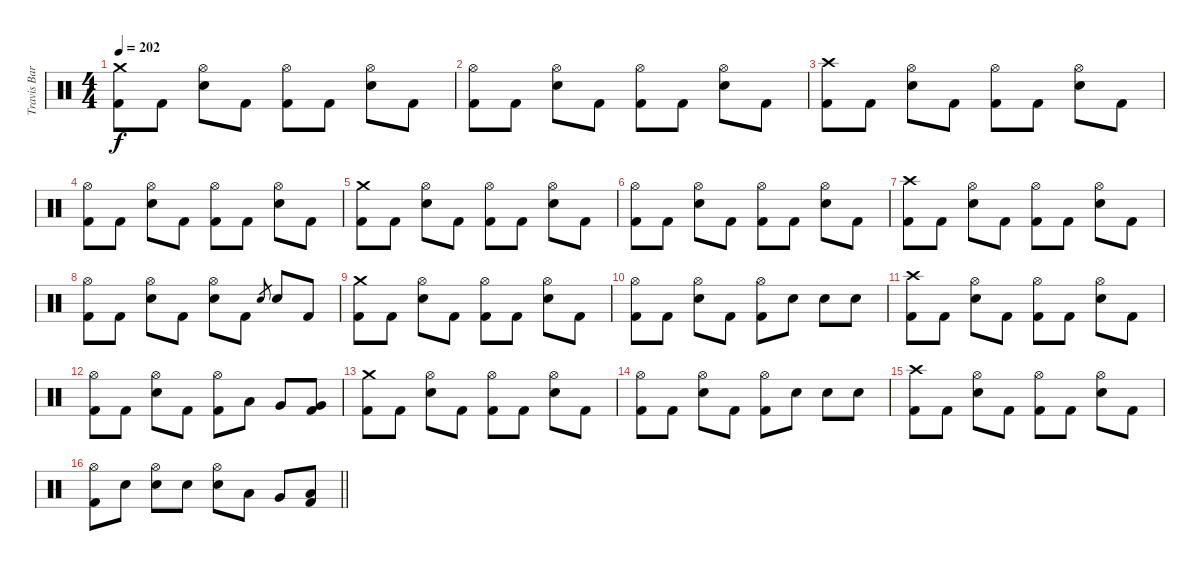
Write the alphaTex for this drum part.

\track ("Travis Barker - Drums" "Travis Bar") {instrument percussion}
\staff {score}
\articulation defaults
\ts (4 4)
\tempo 202
\clef neutral
\ks c
("Crash medium (hit)" "Kick (hit) 2").8{dy f} "Kick (hit) 2".8 ("Hi-Hat (open)" "Electric Snare (hit)").8 "Kick (hit) 2".8 ("Hi-Hat (open)" "Kick (hit) 2").8 "Kick (hit) 2".8 ("Hi-Hat (open)" "Electric Snare (hit)").8 "Kick (hit) 2".8 |
("Hi-Hat (open)" "Kick (hit) 2").8 "Kick (hit) 2".8 ("Hi-Hat (open)" "Electric Snare (hit)").8 "Kick (hit) 2".8 ("Hi-Hat (open)" "Kick (hit) 2").8 "Kick (hit) 2".8 ("Hi-Hat (open)" "Electric Snare (hit)").8 "Kick (hit) 2".8 |
("Crash high (hit)" "Kick (hit) 2").8 "Kick (hit) 2".8 ("Hi-Hat (open)" "Electric Snare (hit)").8 "Kick (hit) 2".8 ("Hi-Hat (open)" "Kick (hit) 2").8 "Kick (hit) 2".8 ("Hi-Hat (open)" "Electric Snare (hit)").8 "Kick (hit) 2".8 |
("Hi-Hat (open)" "Kick (hit) 2").8 "Kick (hit) 2".8 ("Hi-Hat (open)" "Electric Snare (hit)").8 "Kick (hit) 2".8 ("Hi-Hat (open)" "Kick (hit) 2").8 "Kick (hit) 2".8 ("Hi-Hat (open)" "Electric Snare (hit)").8 "Kick (hit) 2".8 |
("Crash medium (hit)" "Kick (hit) 2").8 "Kick (hit) 2".8 ("Hi-Hat (open)" "Electric Snare (hit)").8 "Kick (hit) 2".8 ("Hi-Hat (open)" "Kick (hit) 2").8 "Kick (hit) 2".8 ("Hi-Hat (open)" "Electric Snare (hit)").8 "Kick (hit) 2".8 |
("Hi-Hat (open)" "Kick (hit) 2").8 "Kick (hit) 2".8 ("Hi-Hat (open)" "Electric Snare (hit)").8 "Kick (hit) 2".8 ("Hi-Hat (open)" "Kick (hit) 2").8 "Kick (hit) 2".8 ("Hi-Hat (open)" "Electric Snare (hit)").8 "Kick (hit) 2".8 |
("Crash high (hit)" "Kick (hit) 2").8 "Kick (hit) 2".8 ("Hi-Hat (open)" "Electric Snare (hit)").8 "Kick (hit) 2".8 ("Hi-Hat (open)" "Kick (hit) 2").8 "Kick (hit) 2".8 ("Hi-Hat (open)" "Electric Snare (hit)").8 "Kick (hit) 2".8 |
("Hi-Hat (open)" "Kick (hit) 2").8 "Kick (hit) 2".8 ("Hi-Hat (open)" "Electric Snare (hit)").8 "Kick (hit) 2".8 ("Hi-Hat (open)" "Electric Snare (hit)").8 "Kick (hit) 2".8 "Electric Snare (hit)".8{gr} "Electric Snare (hit)".8 "Kick (hit) 2".8 |
("Crash medium (hit)" "Kick (hit) 2").8 "Kick (hit) 2".8 ("Hi-Hat (open)" "Electric Snare (hit)").8 "Kick (hit) 2".8 ("Hi-Hat (open)" "Kick (hit) 2").8 "Kick (hit) 2".8 ("Hi-Hat (open)" "Electric Snare (hit)").8 "Kick (hit) 2".8 |
("Hi-Hat (open)" "Kick (hit) 2").8 "Kick (hit) 2".8 ("Hi-Hat (open)" "Electric Snare (hit)").8 "Kick (hit) 2".8 ("Hi-Hat (open)" "Kick (hit) 2").8 "Electric Snare (hit)".8 "Electric Snare (hit)".8 "Electric Snare (hit)".8 |
("Crash high (hit)" "Kick (hit) 2").8 "Kick (hit) 2".8 ("Hi-Hat (open)" "Electric Snare (hit)").8 "Kick (hit) 2".8 ("Hi-Hat (open)" "Kick (hit) 2").8 "Kick (hit) 2".8 ("Hi-Hat (open)" "Electric Snare (hit)").8 "Kick (hit) 2".8 |
("Hi-Hat (open)" "Kick (hit) 2").8 "Kick (hit) 2".8 ("Hi-Hat (open)" "Electric Snare (hit)").8 "Kick (hit) 2".8 ("Hi-Hat (open)" "Kick (hit) 2").8 "Low Tom (hit)".8 "Very Low Tom (hit)".8 ("Very Low Tom (hit)" "Kick (hit) 2").8 |
("Crash medium (hit)" "Kick (hit) 2").8 "Kick (hit) 2".8 ("Hi-Hat (open)" "Electric Snare (hit)").8 "Kick (hit) 2".8 ("Hi-Hat (open)" "Kick (hit) 2").8 "Kick (hit) 2".8 ("Hi-Hat (open)" "Electric Snare (hit)").8 "Kick (hit) 2".8 |
("Hi-Hat (open)" "Kick (hit) 2").8 "Kick (hit) 2".8 ("Hi-Hat (open)" "Electric Snare (hit)").8 "Kick (hit) 2".8 ("Hi-Hat (open)" "Kick (hit) 2").8 "Electric Snare (hit)".8 "Electric Snare (hit)".8 "Electric Snare (hit)".8 |
("Crash high (hit)" "Kick (hit) 2").8 "Kick (hit) 2".8 ("Hi-Hat (open)" "Electric Snare (hit)").8 "Kick (hit) 2".8 ("Hi-Hat (open)" "Kick (hit) 2").8 "Kick (hit) 2".8 ("Hi-Hat (open)" "Electric Snare (hit)").8 "Kick (hit) 2".8 |
\barLineRight lightlight
("Hi-Hat (open)" "Kick (hit) 2").8 "Electric Snare (hit)".8 ("Hi-Hat (open)" "Electric Snare (hit)").8 "Electric Snare (hit)".8 ("Hi-Hat (open)" "Electric Snare (hit)").8 "Low Tom (hit)".8 "Very Low Tom (hit)".8 ("Low Floor Tom (hit)" "Kick (hit) 2").8
